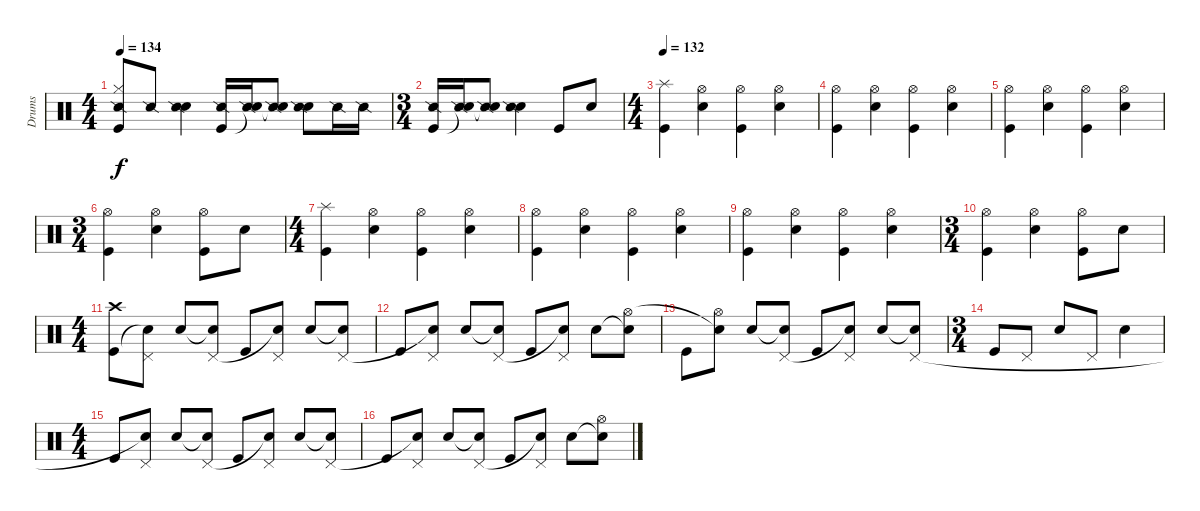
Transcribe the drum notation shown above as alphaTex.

\track ("Drums" "Drums") {instrument percussion}
\staff {score}
\articulation defaults
\ts (4 4)
\tempo 134
\clef neutral
\ks c
("Snare (side stick) 2" "Hi-Hat (closed)" "Kick (hit)").8{dy f} "Snare (side stick) 2".8 ("Electric Snare (hit)" "Snare (side stick) 2").4 ("Snare (side stick) 2" "Kick (hit)").16 ("Snare (side stick) 2" "Snare (hit)"{t}).16 ("Snare (side stick) 2" "Snare (hit)"{t}).8 ("Electric Snare (hit)" "Snare (side stick) 2").8 "Snare (side stick) 2".16 "Snare (side stick) 2".16 |
\ts (3 4)
("Snare (side stick) 2" "Kick (hit)").16 ("Snare (side stick) 2" "Snare (hit)"{t}).16 ("Snare (side stick) 2" "Snare (hit)"{t}).8 ("Electric Snare (hit)" "Snare (side stick) 2").4 "Kick (hit)".8 "Electric Snare (hit)".8 |
\ts (4 4)
\tempo 132
("Splash (hit)" "Kick (hit)").4 ("Electric Snare (hit)" "Hi-Hat (open)").4 ("Hi-Hat (open)" "Kick (hit)").4 ("Electric Snare (hit)" "Hi-Hat (open)").4 |
("Hi-Hat (open)" "Kick (hit)").4 ("Electric Snare (hit)" "Hi-Hat (open)").4 ("Hi-Hat (open)" "Kick (hit)").4 ("Electric Snare (hit)" "Hi-Hat (open)").4 |
("Hi-Hat (open)" "Kick (hit)").4 ("Electric Snare (hit)" "Hi-Hat (open)").4 ("Hi-Hat (open)" "Kick (hit)").4 ("Electric Snare (hit)" "Hi-Hat (open)").4 |
\ts (3 4)
("Hi-Hat (open)" "Kick (hit)").4 ("Electric Snare (hit)" "Hi-Hat (open)").4 ("Hi-Hat (open)" "Kick (hit)").8 "Electric Snare (hit)".8 |
\ts (4 4)
("Splash (hit)" "Kick (hit)").4 ("Electric Snare (hit)" "Hi-Hat (open)").4 ("Hi-Hat (open)" "Kick (hit)").4 ("Electric Snare (hit)" "Hi-Hat (open)").4 |
("Hi-Hat (open)" "Kick (hit)").4 ("Electric Snare (hit)" "Hi-Hat (open)").4 ("Hi-Hat (open)" "Kick (hit)").4 ("Electric Snare (hit)" "Hi-Hat (open)").4 |
("Hi-Hat (open)" "Kick (hit)").4 ("Electric Snare (hit)" "Hi-Hat (open)").4 ("Hi-Hat (open)" "Kick (hit)").4 ("Electric Snare (hit)" "Hi-Hat (open)").4 |
\ts (3 4)
("Hi-Hat (open)" "Kick (hit)").4 ("Electric Snare (hit)" "Hi-Hat (open)").4 ("Hi-Hat (open)" "Kick (hit)").8 "Electric Snare (hit)".8 |
\ts (4 4)
("Crash high (hit)" "Kick (hit)").8 ("Pedal Hi-Hat (hit)" "Snare (hit)"{t}).8 "Electric Snare (hit)".8 ("Snare (hit)"{t} "Pedal Hi-Hat (hit)").8 "Kick (hit)".8 ("Pedal Hi-Hat (hit)" "Snare (hit)"{t}).8 "Electric Snare (hit)".8 ("Snare (hit)"{t} "Pedal Hi-Hat (hit)").8 |
"Kick (hit)".8 ("Pedal Hi-Hat (hit)" "Snare (hit)"{t}).8 "Electric Snare (hit)".8 ("Snare (hit)"{t} "Pedal Hi-Hat (hit)").8 "Kick (hit)".8 ("Pedal Hi-Hat (hit)" "Snare (hit)"{t}).8 "Electric Snare (hit)".8 ("Snare (hit)"{t} "Hi-Hat (open)").8 |
"Kick (hit)".8 ("Hi-Hat (open)" "Snare (hit)"{t}).8 "Electric Snare (hit)".8 ("Snare (hit)"{t} "Pedal Hi-Hat (hit)").8 "Kick (hit)".8 ("Pedal Hi-Hat (hit)" "Snare (hit)"{t}).8 "Electric Snare (hit)".8 ("Snare (hit)"{t} "Pedal Hi-Hat (hit)").8 |
\ts (3 4)
"Kick (hit)".8 "Pedal Hi-Hat (hit)".8 "Electric Snare (hit)".8 "Pedal Hi-Hat (hit)".8 "Electric Snare (hit)".4 |
\ts (4 4)
"Kick (hit)".8 ("Pedal Hi-Hat (hit)" "Snare (hit)"{t}).8 "Electric Snare (hit)".8 ("Snare (hit)"{t} "Pedal Hi-Hat (hit)").8 "Kick (hit)".8 ("Pedal Hi-Hat (hit)" "Snare (hit)"{t}).8 "Electric Snare (hit)".8 ("Snare (hit)"{t} "Pedal Hi-Hat (hit)").8 |
"Kick (hit)".8 ("Pedal Hi-Hat (hit)" "Snare (hit)"{t}).8 "Electric Snare (hit)".8 ("Snare (hit)"{t} "Pedal Hi-Hat (hit)").8 "Kick (hit)".8 ("Pedal Hi-Hat (hit)" "Snare (hit)"{t}).8 "Electric Snare (hit)".8 ("Snare (hit)"{t} "Hi-Hat (open)").8
